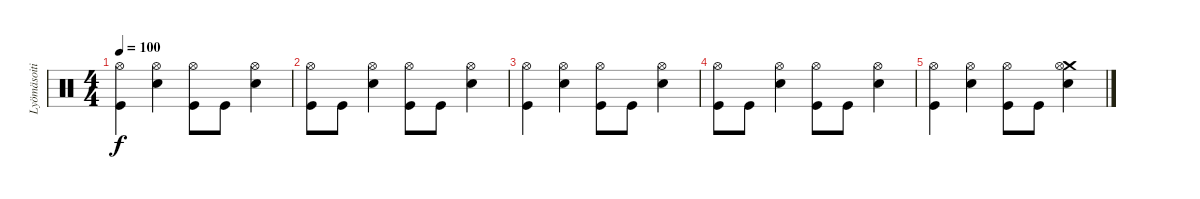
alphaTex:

\track ("Lyömäsoitin" "Lyömäsoiti") {instrument percussion}
\staff {score}
\articulation defaults
\ts (4 4)
\tempo 100
\clef neutral
\ks c
("Hi-Hat (open)" "Kick (hit)").4{dy f} ("Hi-Hat (open)" "Snare (hit) 2").4 ("Hi-Hat (open)" "Kick (hit)").8 "Kick (hit)".8 ("Hi-Hat (open)" "Snare (hit) 2").4 |
("Hi-Hat (open)" "Kick (hit)").8 "Kick (hit)".8 ("Hi-Hat (open)" "Snare (hit) 2").4 ("Hi-Hat (open)" "Kick (hit)").8 "Kick (hit)".8 ("Hi-Hat (open)" "Snare (hit) 2").4 |
("Hi-Hat (open)" "Kick (hit)").4 ("Hi-Hat (open)" "Snare (hit) 2").4 ("Hi-Hat (open)" "Kick (hit)").8 "Kick (hit)".8 ("Hi-Hat (open)" "Snare (hit) 2").4 |
("Hi-Hat (open)" "Kick (hit)").8 "Kick (hit)".8 ("Hi-Hat (open)" "Snare (hit) 2").4 ("Hi-Hat (open)" "Kick (hit)").8 "Kick (hit)".8 ("Hi-Hat (open)" "Snare (hit) 2").4 |
("Hi-Hat (open)" "Kick (hit)").4 ("Hi-Hat (open)" "Snare (hit) 2").4 ("Hi-Hat (open)" "Kick (hit)").8 "Kick (hit)".8 ("Crash medium (hit)" "Hi-Hat (open)" "Snare (hit) 2").4
